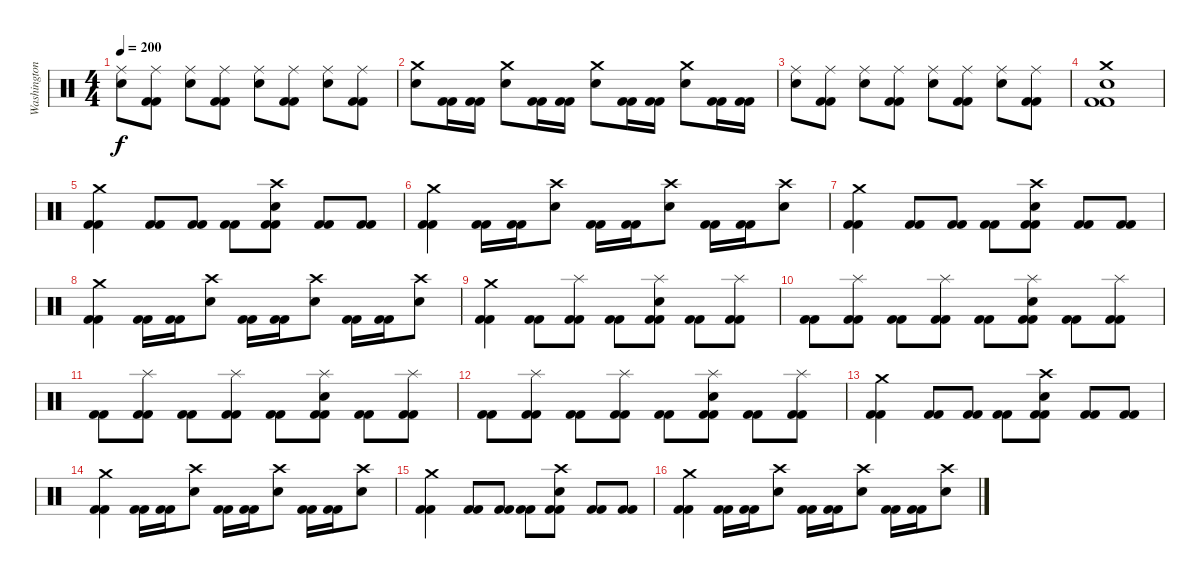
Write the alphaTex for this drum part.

\track ("Washington" "Washington") {instrument percussion}
\staff {score}
\articulation defaults
\ts (4 4)
\tempo 200
\clef neutral
\ks c
("Ride (middle)" "Electric Snare (hit)").8{dy f} ("Ride (middle)" "Kick (hit) 2" "Kick (hit) 2").8 ("Ride (middle)" "Electric Snare (hit)").8 ("Ride (middle)" "Kick (hit) 2" "Kick (hit) 2").8 ("Ride (middle)" "Electric Snare (hit)").8 ("Ride (middle)" "Kick (hit) 2" "Kick (hit) 2").8 ("Ride (middle)" "Electric Snare (hit)").8 ("Ride (middle)" "Kick (hit) 2" "Kick (hit) 2").8 |
("Crash medium (hit)" "Electric Snare (hit)").8 ("Kick (hit) 2" "Kick (hit) 2").16 ("Kick (hit) 2" "Kick (hit) 2").16 ("Crash medium (hit)" "Electric Snare (hit)").8 ("Kick (hit) 2" "Kick (hit) 2").16 ("Kick (hit) 2" "Kick (hit) 2").16 ("Crash medium (hit)" "Electric Snare (hit)").8 ("Kick (hit) 2" "Kick (hit) 2").16 ("Kick (hit) 2" "Kick (hit) 2").16 ("Crash medium (hit)" "Electric Snare (hit)").8 ("Kick (hit) 2" "Kick (hit) 2").16 ("Kick (hit) 2" "Kick (hit) 2").16 |
("Ride (middle)" "Electric Snare (hit)").8 ("Ride (middle)" "Kick (hit) 2" "Kick (hit) 2").8 ("Ride (middle)" "Electric Snare (hit)").8 ("Ride (middle)" "Kick (hit) 2" "Kick (hit) 2").8 ("Ride (middle)" "Electric Snare (hit)").8 ("Ride (middle)" "Kick (hit) 2" "Kick (hit) 2").8 ("Ride (middle)" "Electric Snare (hit)").8 ("Ride (middle)" "Kick (hit) 2" "Kick (hit) 2").8 |
("Crash medium (hit)" "Electric Snare (hit)" "Kick (hit) 2" "Kick (hit) 2").1 |
("Crash medium (hit)" "Kick (hit) 2" "Kick (hit) 2").4 ("Kick (hit) 2" "Kick (hit) 2").8 ("Kick (hit) 2" "Kick (hit) 2").8 ("Kick (hit) 2" "Kick (hit) 2").8 ("Crash high (hit)" "Electric Snare (hit)" "Kick (hit) 2" "Kick (hit) 2").8 ("Kick (hit) 2" "Kick (hit) 2").8 ("Kick (hit) 2" "Kick (hit) 2").8 |
("Crash medium (hit)" "Kick (hit) 2" "Kick (hit) 2").4 ("Kick (hit) 2" "Kick (hit) 2").16 ("Kick (hit) 2" "Kick (hit) 2").16 ("Crash high (hit)" "Electric Snare (hit)").8 ("Kick (hit) 2" "Kick (hit) 2").16 ("Kick (hit) 2" "Kick (hit) 2").16 ("Crash high (hit)" "Electric Snare (hit)").8 ("Kick (hit) 2" "Kick (hit) 2").16 ("Kick (hit) 2" "Kick (hit) 2").16 ("Crash high (hit)" "Electric Snare (hit)").8 |
("Crash medium (hit)" "Kick (hit) 2" "Kick (hit) 2").4 ("Kick (hit) 2" "Kick (hit) 2").8 ("Kick (hit) 2" "Kick (hit) 2").8 ("Kick (hit) 2" "Kick (hit) 2").8 ("Crash high (hit)" "Electric Snare (hit)" "Kick (hit) 2" "Kick (hit) 2").8 ("Kick (hit) 2" "Kick (hit) 2").8 ("Kick (hit) 2" "Kick (hit) 2").8 |
("Crash medium (hit)" "Kick (hit) 2" "Kick (hit) 2").4 ("Kick (hit) 2" "Kick (hit) 2").16 ("Kick (hit) 2" "Kick (hit) 2").16 ("Crash high (hit)" "Electric Snare (hit)").8 ("Kick (hit) 2" "Kick (hit) 2").16 ("Kick (hit) 2" "Kick (hit) 2").16 ("Crash high (hit)" "Electric Snare (hit)").8 ("Kick (hit) 2" "Kick (hit) 2").16 ("Kick (hit) 2" "Kick (hit) 2").16 ("Crash high (hit)" "Electric Snare (hit)").8 |
("Crash medium (hit)" "Kick (hit) 2" "Kick (hit) 2").4 ("Kick (hit) 2" "Kick (hit) 2").8 ("Splash (hit)" "Kick (hit) 2" "Kick (hit) 2").8 ("Kick (hit) 2" "Kick (hit) 2").8 ("Splash (hit)" "Electric Snare (hit)" "Kick (hit) 2" "Kick (hit) 2").8 ("Kick (hit) 2" "Kick (hit) 2").8 ("Splash (hit)" "Kick (hit) 2" "Kick (hit) 2").8 |
("Kick (hit) 2" "Kick (hit) 2").8 ("Splash (hit)" "Kick (hit) 2" "Kick (hit) 2").8 ("Kick (hit) 2" "Kick (hit) 2").8 ("Splash (hit)" "Kick (hit) 2" "Kick (hit) 2").8 ("Kick (hit) 2" "Kick (hit) 2").8 ("Splash (hit)" "Electric Snare (hit)" "Kick (hit) 2" "Kick (hit) 2").8 ("Kick (hit) 2" "Kick (hit) 2").8 ("Splash (hit)" "Kick (hit) 2" "Kick (hit) 2").8 |
("Kick (hit) 2" "Kick (hit) 2").8 ("Splash (hit)" "Kick (hit) 2" "Kick (hit) 2").8 ("Kick (hit) 2" "Kick (hit) 2").8 ("Splash (hit)" "Kick (hit) 2" "Kick (hit) 2").8 ("Kick (hit) 2" "Kick (hit) 2").8 ("Splash (hit)" "Electric Snare (hit)" "Kick (hit) 2" "Kick (hit) 2").8 ("Kick (hit) 2" "Kick (hit) 2").8 ("Splash (hit)" "Kick (hit) 2" "Kick (hit) 2").8 |
("Kick (hit) 2" "Kick (hit) 2").8 ("Splash (hit)" "Kick (hit) 2" "Kick (hit) 2").8 ("Kick (hit) 2" "Kick (hit) 2").8 ("Splash (hit)" "Kick (hit) 2" "Kick (hit) 2").8 ("Kick (hit) 2" "Kick (hit) 2").8 ("Splash (hit)" "Electric Snare (hit)" "Kick (hit) 2" "Kick (hit) 2").8 ("Kick (hit) 2" "Kick (hit) 2").8 ("Splash (hit)" "Kick (hit) 2" "Kick (hit) 2").8 |
("Crash medium (hit)" "Kick (hit) 2" "Kick (hit) 2").4 ("Kick (hit) 2" "Kick (hit) 2").8 ("Kick (hit) 2" "Kick (hit) 2").8 ("Kick (hit) 2" "Kick (hit) 2").8 ("Crash high (hit)" "Electric Snare (hit)" "Kick (hit) 2" "Kick (hit) 2").8 ("Kick (hit) 2" "Kick (hit) 2").8 ("Kick (hit) 2" "Kick (hit) 2").8 |
("Crash medium (hit)" "Kick (hit) 2" "Kick (hit) 2").4 ("Kick (hit) 2" "Kick (hit) 2").16 ("Kick (hit) 2" "Kick (hit) 2").16 ("Crash high (hit)" "Electric Snare (hit)").8 ("Kick (hit) 2" "Kick (hit) 2").16 ("Kick (hit) 2" "Kick (hit) 2").16 ("Crash high (hit)" "Electric Snare (hit)").8 ("Kick (hit) 2" "Kick (hit) 2").16 ("Kick (hit) 2" "Kick (hit) 2").16 ("Crash high (hit)" "Electric Snare (hit)").8 |
("Crash medium (hit)" "Kick (hit) 2" "Kick (hit) 2").4 ("Kick (hit) 2" "Kick (hit) 2").8 ("Kick (hit) 2" "Kick (hit) 2").8 ("Kick (hit) 2" "Kick (hit) 2").8 ("Crash high (hit)" "Electric Snare (hit)" "Kick (hit) 2" "Kick (hit) 2").8 ("Kick (hit) 2" "Kick (hit) 2").8 ("Kick (hit) 2" "Kick (hit) 2").8 |
("Crash medium (hit)" "Kick (hit) 2" "Kick (hit) 2").4 ("Kick (hit) 2" "Kick (hit) 2").16 ("Kick (hit) 2" "Kick (hit) 2").16 ("Crash high (hit)" "Electric Snare (hit)").8 ("Kick (hit) 2" "Kick (hit) 2").16 ("Kick (hit) 2" "Kick (hit) 2").16 ("Crash high (hit)" "Electric Snare (hit)").8 ("Kick (hit) 2" "Kick (hit) 2").16 ("Kick (hit) 2" "Kick (hit) 2").16 ("Crash high (hit)" "Electric Snare (hit)").8
